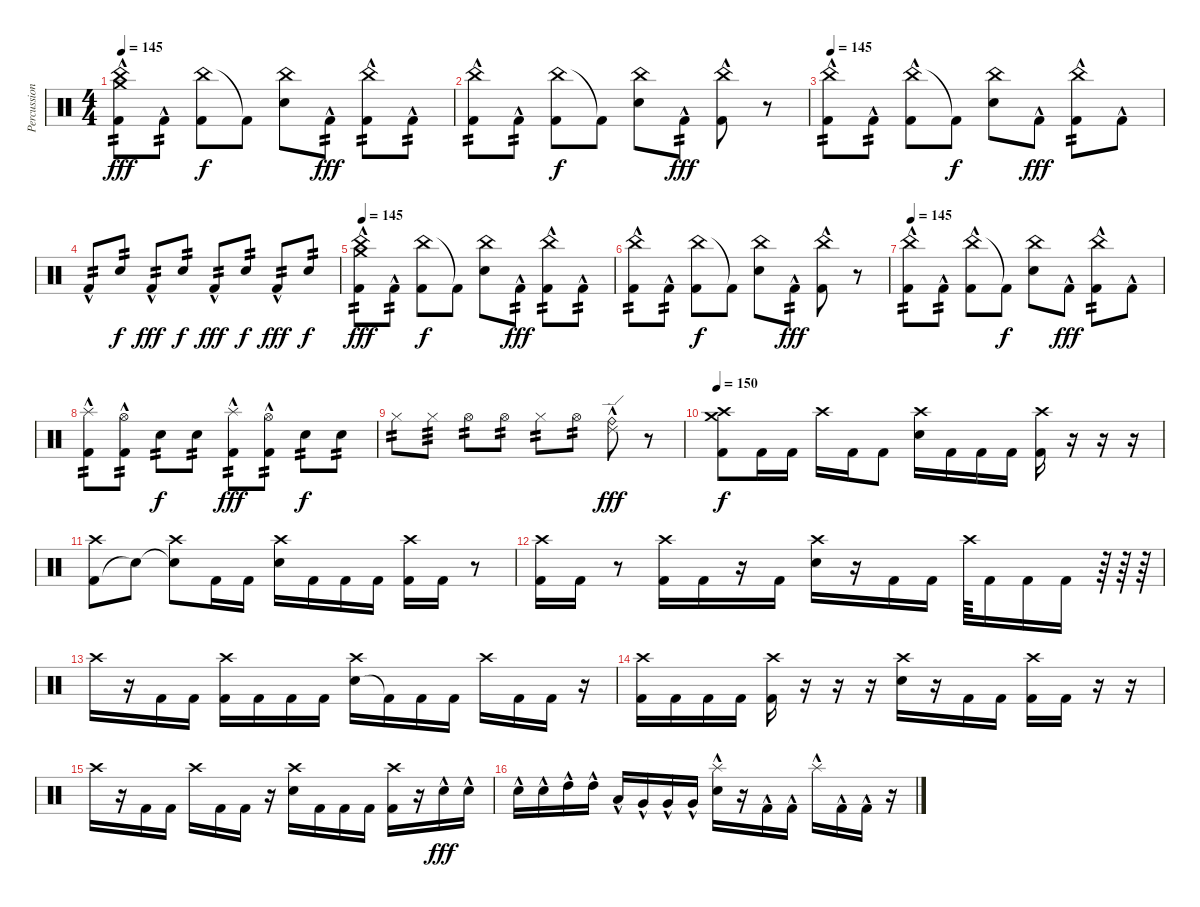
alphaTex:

\track ("Percussion" "Percussion") {instrument percussion}
\staff {score}
\articulation defaults
\ts (4 4)
\tempo 145
\clef neutral
\ks c
("China (hit)" "Crash medium (hit)" "Kick (hit) 2"{hac}).8{tp 2 dy fff} "Kick (hit) 2"{hac}.8{tp 2} ("China (hit)" "Kick (hit) 2").8{dy f} "Kick (hit) 2"{t}.8 ("China (hit)" "Snare (hit) 2").8 "Kick (hit) 2"{hac}.8{tp 2 dy fff} ("China (hit)" "Kick (hit) 2"{hac}).8{tp 2} "Kick (hit) 2"{hac}.8{tp 2} |
("China (hit)" "Kick (hit) 2"{hac}).8{tp 2} "Kick (hit) 2"{hac}.8{tp 2} ("China (hit)" "Kick (hit) 2").8{dy f} "Kick (hit) 2"{t}.8 ("China (hit)" "Snare (hit) 2").8 "Kick (hit) 2"{hac}.8{tp 2 dy fff} ("China (hit)" "Kick (hit) 2"{hac}).8 r.8 |
\tempo 145
("China (hit)" "Kick (hit) 2"{hac}).8{tp 2} "Kick (hit) 2"{hac}.8{tp 2} ("China (hit)" "Kick (hit) 2"{hac}).8 "Kick (hit) 2"{t}.8{dy f} ("China (hit)" "Snare (hit) 2").8 "Kick (hit) 2"{hac}.8{dy fff} ("China (hit)" "Kick (hit) 2"{hac}).8{tp 2} "Kick (hit) 2"{hac}.8 |
"Kick (hit) 2"{hac}.8{tp 2} "Snare (hit) 2".8{tp 2 dy f} "Kick (hit) 2"{hac}.8{tp 2 dy fff} "Snare (hit) 2".8{tp 2 dy f} "Kick (hit) 2"{hac}.8{tp 2 dy fff} "Snare (hit) 2".8{tp 2 dy f} "Kick (hit) 2"{hac}.8{tp 2 dy fff} "Snare (hit) 2".8{tp 2 dy f} |
\tempo 145
("China (hit)" "Crash medium (hit)" "Kick (hit) 2"{hac}).8{tp 2 dy fff} "Kick (hit) 2"{hac}.8{tp 2} ("China (hit)" "Kick (hit) 2").8{dy f} "Kick (hit) 2"{t}.8 ("China (hit)" "Snare (hit) 2").8 "Kick (hit) 2"{hac}.8{tp 2 dy fff} ("China (hit)" "Kick (hit) 2"{hac}).8{tp 2} "Kick (hit) 2"{hac}.8{tp 2} |
("China (hit)" "Kick (hit) 2"{hac}).8{tp 2} "Kick (hit) 2"{hac}.8{tp 2} ("China (hit)" "Kick (hit) 2").8{dy f} "Kick (hit) 2"{t}.8 ("China (hit)" "Snare (hit) 2").8 "Kick (hit) 2"{hac}.8{tp 2 dy fff} ("China (hit)" "Kick (hit) 2"{hac}).8 r.8 |
\tempo 145
("China (hit)" "Kick (hit) 2"{hac}).8{tp 2} "Kick (hit) 2"{hac}.8{tp 2} ("China (hit)" "Kick (hit) 2"{hac}).8 "Kick (hit) 2"{t}.8{dy f} ("China (hit)" "Snare (hit) 2").8 "Kick (hit) 2"{hac}.8{dy fff} ("China (hit)" "Kick (hit) 2"{hac}).8{tp 2} "Kick (hit) 2"{hac}.8 |
("Kick (hit) 2"{hac} "Splash (hit)"{hac}).8{tp 2} ("Kick (hit) 2"{hac} "Hi-Hat (open)"{hac}).8{tp 2} "Snare (hit) 2".8{tp 2 dy f} "Snare (hit) 2".8{tp 2} ("Kick (hit) 2"{hac} "Splash (hit)"{hac}).8{tp 2 dy fff} ("Kick (hit) 2"{hac} "Hi-Hat (open)"{hac}).8{tp 2} "Snare (hit) 2".8{tp 2 dy f} "Snare (hit) 2".8{tp 2} |
"Hi-Hat (closed)".8{tp 2} "Hi-Hat (closed)".8{tp 3} "Hi-Hat (open)".8{tp 2} "Hi-Hat (open)".8{tp 2} "Hi-Hat (closed)".8{tp 2} "Hi-Hat (open)".8{tp 2} ("Ride (bell)"{hac} "Ride (edge) 2"{hac}).8{dy fff} r.8 |
\tempo 150
("Crash high (hit)" "Kick (hit) 2" "Crash medium (hit)").8{dy f} "Kick (hit) 2".16 "Kick (hit) 2".16 "Crash high (hit)".16 "Kick (hit) 2".16 "Kick (hit) 2".8 ("Crash high (hit)" "Snare (hit) 2").16 "Kick (hit) 2".16 "Kick (hit) 2".16 "Kick (hit) 2".16 ("Crash high (hit)" "Kick (hit) 2").16 r.16 r.16 r.16 |
("Kick (hit) 2" "Crash high (hit)").8 "Snare (hit)"{t}.8 ("Snare (hit)"{t} "Crash high (hit)").8 "Kick (hit) 2".16 "Kick (hit) 2".16 ("Snare (hit) 2" "Crash high (hit)").16 "Kick (hit) 2".16 "Kick (hit) 2".16 "Kick (hit) 2".16 ("Kick (hit) 2" "Crash high (hit)").16 "Kick (hit) 2".16 r.8 |
("Kick (hit) 2" "Crash high (hit)").16 "Kick (hit) 2".16 r.8 ("Kick (hit) 2" "Crash high (hit)").16 "Kick (hit) 2".16 r.16 "Kick (hit) 2".16 ("Snare (hit) 2" "Crash high (hit)").16 r.16 "Kick (hit) 2".16 "Kick (hit) 2".16 "Crash high (hit)".64 "Kick (hit) 2".16 "Kick (hit) 2".16 "Kick (hit) 2".16 r.64 r.64 r.64 |
"Crash high (hit)".16 r.16 "Kick (hit) 2".16 "Kick (hit) 2".16 ("Kick (hit) 2" "Crash high (hit)").16 "Kick (hit) 2".16 "Kick (hit) 2".16 "Kick (hit) 2".16 ("Snare (hit) 2" "Crash high (hit)").16 "Kick (hit) 2"{t}.16 "Kick (hit) 2".16 "Kick (hit) 2".16 "Crash high (hit)".16 "Kick (hit) 2".16 "Kick (hit) 2".16 r.16 |
("Kick (hit) 2" "Crash high (hit)").16 "Kick (hit) 2".16 "Kick (hit) 2".16 "Kick (hit) 2".16 ("Kick (hit) 2" "Crash high (hit)").16 r.16 r.16 r.16 ("Snare (hit) 2" "Crash high (hit)").16 r.16 "Kick (hit) 2".16 "Kick (hit) 2".16 ("Kick (hit) 2" "Crash high (hit)").16 "Kick (hit) 2".16 r.16 r.16 |
"Crash high (hit)".16 r.16 "Kick (hit) 2".16 "Kick (hit) 2".16 "Crash high (hit)".16 "Kick (hit) 2".16 "Kick (hit) 2".16 r.16 ("Snare (hit) 2" "Crash high (hit)").16 "Kick (hit) 2".16 "Kick (hit) 2".16 "Kick (hit) 2".16 ("Kick (hit) 2" "Crash high (hit)").16 r.16 "Snare (hit) 2"{hac}.16{dy fff} "Snare (hit) 2"{hac}.16 |
"Snare (hit) 2"{hac}.16 "Snare (hit) 2"{hac}.16 "High Tom (hit)"{hac}.16 "High Tom (hit)"{hac}.16 "Low Tom (hit)"{hac}.16 "Very Low Tom (hit)"{hac}.16 "Very Low Tom (hit)"{hac}.16 "Very Low Tom (hit)"{hac}.16 ("Snare (hit) 2"{hac} "Splash (hit)"{hac}).16 r.16 "Kick (hit) 2"{hac}.16 "Kick (hit) 2"{hac}.16 "Splash (hit)"{hac}.16 "Kick (hit) 2"{hac}.16 "Kick (hit) 2"{hac}.16 r.16
